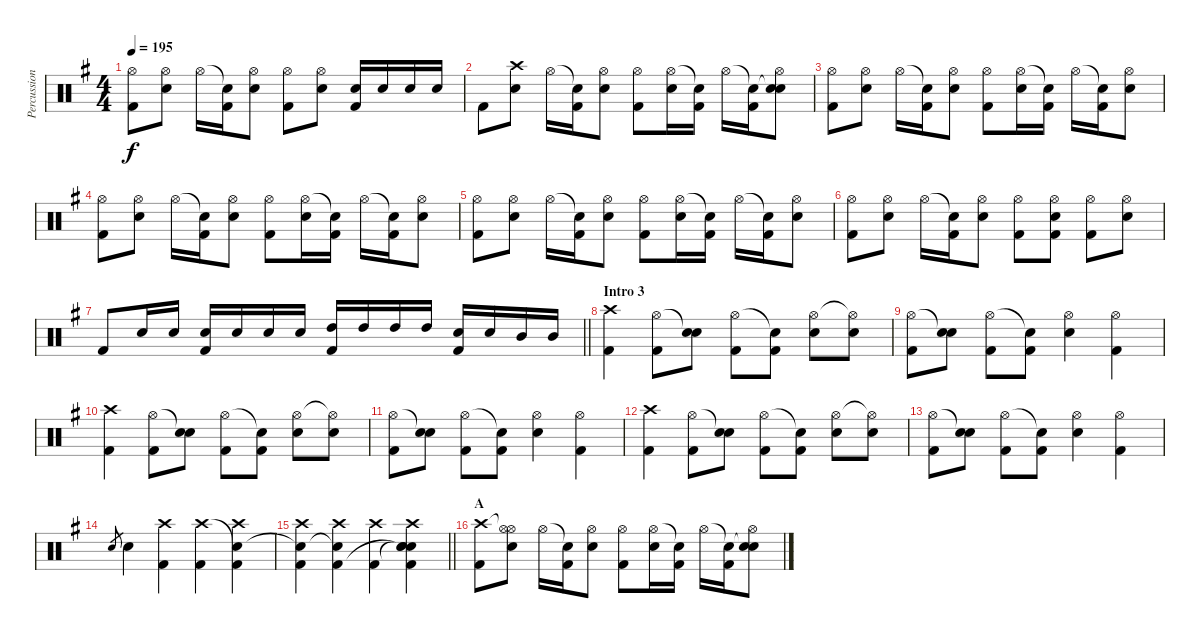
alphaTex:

\track ("Percussion" "Percussion") {instrument percussion}
\staff {score}
\articulation defaults
\ts (4 4)
\tempo 195
\clef neutral
\ks g
("Hi-Hat (open)" "Kick (hit) 2").8{dy f} ("Hi-Hat (open)" "Electric Snare (hit)").8 "Hi-Hat (open)".16 ("Snare (hit)"{t} "Kick (hit) 2").16 ("Hi-Hat (open)" "Electric Snare (hit)").8 ("Hi-Hat (open)" "Kick (hit) 2").8 ("Hi-Hat (open)" "Electric Snare (hit)").8 ("Electric Snare (hit)" "Kick (hit) 2").16 "Electric Snare (hit)".16 "Electric Snare (hit)".16 "Electric Snare (hit)".16 |
"Kick (hit) 2".8 ("Crash high (hit)" "Electric Snare (hit)").8 "Hi-Hat (open)".16 ("Snare (hit)"{t} "Kick (hit) 2").16 ("Hi-Hat (open)" "Electric Snare (hit)").8 ("Hi-Hat (open)" "Kick (hit) 2").8 ("Hi-Hat (open)" "Electric Snare (hit)").16 ("Snare (hit)"{t} "Kick (hit) 2").16 "Hi-Hat (open)".16 ("Snare (hit)"{t} "Kick (hit) 2").16 ("Snare (hit)"{t} "Hi-Hat (open)" "Electric Snare (hit)").8 |
("Hi-Hat (open)" "Kick (hit) 2").8 ("Hi-Hat (open)" "Electric Snare (hit)").8 "Hi-Hat (open)".16 ("Snare (hit)"{t} "Kick (hit) 2").16 ("Hi-Hat (open)" "Electric Snare (hit)").8 ("Hi-Hat (open)" "Kick (hit) 2").8 ("Hi-Hat (open)" "Electric Snare (hit)").16 ("Snare (hit)"{t} "Kick (hit) 2").16 "Hi-Hat (open)".16 ("Snare (hit)"{t} "Kick (hit) 2").16 ("Hi-Hat (open)" "Electric Snare (hit)").8 |
("Hi-Hat (open)" "Kick (hit) 2").8 ("Hi-Hat (open)" "Electric Snare (hit)").8 "Hi-Hat (open)".16 ("Snare (hit)"{t} "Kick (hit) 2").16 ("Hi-Hat (open)" "Electric Snare (hit)").8 ("Hi-Hat (open)" "Kick (hit) 2").8 ("Hi-Hat (open)" "Electric Snare (hit)").16 ("Snare (hit)"{t} "Kick (hit) 2").16 "Hi-Hat (open)".16 ("Snare (hit)"{t} "Kick (hit) 2").16 ("Hi-Hat (open)" "Electric Snare (hit)").8 |
("Hi-Hat (open)" "Kick (hit) 2").8 ("Hi-Hat (open)" "Electric Snare (hit)").8 "Hi-Hat (open)".16 ("Snare (hit)"{t} "Kick (hit) 2").16 ("Hi-Hat (open)" "Electric Snare (hit)").8 ("Hi-Hat (open)" "Kick (hit) 2").8 ("Hi-Hat (open)" "Electric Snare (hit)").16 ("Snare (hit)"{t} "Kick (hit) 2").16 "Hi-Hat (open)".16 ("Snare (hit)"{t} "Kick (hit) 2").16 ("Hi-Hat (open)" "Electric Snare (hit)").8 |
("Hi-Hat (open)" "Kick (hit) 2").8 ("Hi-Hat (open)" "Electric Snare (hit)").8 "Hi-Hat (open)".16 ("Snare (hit)"{t} "Kick (hit) 2").16 ("Hi-Hat (open)" "Electric Snare (hit)").8 ("Hi-Hat (open)" "Kick (hit) 2").8 ("Hi-Hat (open)" "Electric Snare (hit)" "Kick (hit) 2").8 ("Hi-Hat (open)" "Kick (hit) 2").8 ("Hi-Hat (open)" "Electric Snare (hit)").8 |
\barLineRight lightlight "Kick (hit) 2".8 "Electric Snare (hit)".16 "Electric Snare (hit)".16
("Electric Snare (hit)" "Kick (hit) 2").16 "Electric Snare (hit)".16 "Electric Snare (hit)".16 "Electric Snare (hit)".16 ("High Tom (hit)" "Kick (hit) 2").16 "High Tom (hit)".16 "High Tom (hit)".16 "High Tom (hit)".16 ("Electric Snare (hit)" "Kick (hit) 2").16 "Electric Snare (hit)".16 "Mid Tom (hit)".16 "Mid Tom (hit)".16 |
\section ("" "Intro 3")
("Crash high (hit)" "Kick (hit) 2").4 ("Hi-Hat (open)" "Kick (hit) 2").8 ("Snare (hit)"{t} "Electric Snare (hit)").8 ("Hi-Hat (open)" "Kick (hit) 2").8 ("Snare (hit)"{t} "Kick (hit) 2").8 ("Hi-Hat (open)" "Electric Snare (hit)").8 ("Hi-Hat (open)"{t} "Electric Snare (hit)").8 |
("Hi-Hat (open)" "Kick (hit) 2").8 ("Snare (hit)"{t} "Electric Snare (hit)").8 ("Hi-Hat (open)" "Kick (hit) 2").8 ("Snare (hit)"{t} "Kick (hit) 2").8 ("Hi-Hat (open)" "Electric Snare (hit)").4 ("Hi-Hat (open)" "Kick (hit) 2").4 |
("Crash high (hit)" "Kick (hit) 2").4 ("Hi-Hat (open)" "Kick (hit) 2").8 ("Snare (hit)"{t} "Electric Snare (hit)").8 ("Hi-Hat (open)" "Kick (hit) 2").8 ("Snare (hit)"{t} "Kick (hit) 2").8 ("Hi-Hat (open)" "Electric Snare (hit)").8 ("Hi-Hat (open)"{t} "Electric Snare (hit)").8 |
("Hi-Hat (open)" "Kick (hit) 2").8 ("Snare (hit)"{t} "Electric Snare (hit)").8 ("Hi-Hat (open)" "Kick (hit) 2").8 ("Snare (hit)"{t} "Kick (hit) 2").8 ("Hi-Hat (open)" "Electric Snare (hit)").4 ("Hi-Hat (open)" "Kick (hit) 2").4 |
("Crash high (hit)" "Kick (hit) 2").4 ("Hi-Hat (open)" "Kick (hit) 2").8 ("Snare (hit)"{t} "Electric Snare (hit)").8 ("Hi-Hat (open)" "Kick (hit) 2").8 ("Snare (hit)"{t} "Kick (hit) 2").8 ("Hi-Hat (open)" "Electric Snare (hit)").8 ("Hi-Hat (open)"{t} "Electric Snare (hit)").8 |
("Hi-Hat (open)" "Kick (hit) 2").8 ("Snare (hit)"{t} "Electric Snare (hit)").8 ("Hi-Hat (open)" "Kick (hit) 2").8 ("Snare (hit)"{t} "Kick (hit) 2").8 ("Hi-Hat (open)" "Electric Snare (hit)").4 ("Hi-Hat (open)" "Kick (hit) 2").4 |
"Electric Snare (hit)".8{gr} "Electric Snare (hit)".4 ("Crash high (hit)" "Kick (hit) 2").4 ("Crash high (hit)" "Kick (hit) 2").4 ("Snare (hit)"{t} "Crash high (hit)" "Kick (hit) 2").4 |
\barLineRight lightlight
("Snare (hit)"{t} "Crash high (hit)" "Kick (hit) 2").4 ("Snare (hit)"{t} "Crash high (hit)" "Kick (hit) 2").4 ("Crash high (hit)" "Kick (hit) 2").4 ("Crash high (hit)" "Snare (hit)"{t} "Snare (hit)"{t} "Snare (hit)" "Kick (hit) 2").4 |
\section ("" "A")
("Crash high (hit)" "Kick (hit) 2").8 ("Hi-Hat (open)"{t} "Hi-Hat (open)" "Electric Snare (hit)").8 "Hi-Hat (open)".16 ("Snare (hit)"{t} "Kick (hit) 2").16 ("Hi-Hat (open)" "Electric Snare (hit)").8 ("Hi-Hat (open)" "Kick (hit) 2").8 ("Hi-Hat (open)" "Electric Snare (hit)").16 ("Snare (hit)"{t} "Kick (hit) 2").16 "Hi-Hat (open)".16 ("Snare (hit)"{t} "Kick (hit) 2").16 ("Snare (hit)"{t} "Hi-Hat (open)" "Electric Snare (hit)").8
